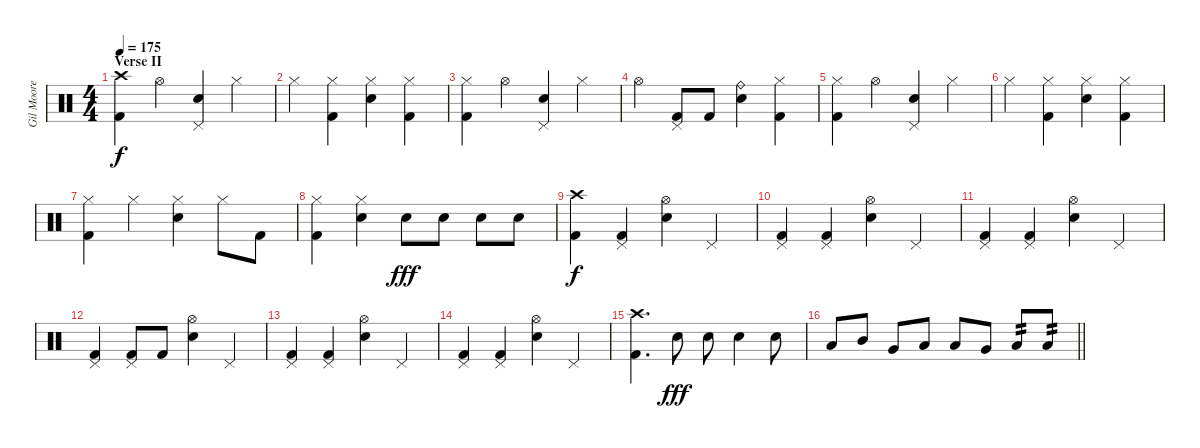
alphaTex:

\track ("Gil Moore" "Gil Moore") {instrument percussion}
\staff {score}
\articulation defaults
\ts (4 4)
\section ("" "Verse II")
\tempo 175
\clef neutral
\ks c
("Crash high (hit)" "Kick (hit) 2").4{dy f} "Hi-Hat (open)".4 ("Pedal Hi-Hat (hit)" "Snare (hit) 2").4 "Hi-Hat (closed)".4 |
"Hi-Hat (closed)".4 ("Hi-Hat (closed)" "Kick (hit) 2").4 ("Hi-Hat (closed)" "Snare (hit) 2").4 ("Hi-Hat (closed)" "Kick (hit) 2").4 |
("Hi-Hat (closed)" "Kick (hit) 2").4 "Hi-Hat (open)".4 ("Pedal Hi-Hat (hit)" "Snare (hit) 2").4 "Hi-Hat (closed)".4 |
"Hi-Hat (open)".4 ("Pedal Hi-Hat (hit)" "Kick (hit) 2").8 "Kick (hit) 2".8 ("Ride (bell)" "Snare (hit) 2").4 ("Hi-Hat (closed)" "Kick (hit) 2").4 |
("Hi-Hat (closed)" "Kick (hit) 2").4 "Hi-Hat (open)".4 ("Pedal Hi-Hat (hit)" "Snare (hit) 2").4 "Hi-Hat (closed)".4 |
"Hi-Hat (closed)".4 ("Hi-Hat (closed)" "Kick (hit) 2").4 ("Hi-Hat (closed)" "Snare (hit) 2").4 ("Hi-Hat (closed)" "Kick (hit) 2").4 |
("Hi-Hat (closed)" "Kick (hit) 2").4 "Hi-Hat (closed)".4 ("Hi-Hat (closed)" "Snare (hit) 2").4 "Hi-Hat (closed)".8 "Kick (hit) 2".8 |
("Hi-Hat (closed)" "Kick (hit) 2").4 ("Hi-Hat (closed)" "Snare (hit) 2").4 "Snare (hit) 2".8{dy fff} "Snare (hit) 2".8 "Snare (hit) 2".8 "Snare (hit) 2".8 |
("Crash high (hit)" "Kick (hit) 2").4{dy f} ("Pedal Hi-Hat (hit)" "Kick (hit) 2").4 ("Hi-Hat (open)" "Snare (hit) 2").4 "Pedal Hi-Hat (hit)".4 |
("Pedal Hi-Hat (hit)" "Kick (hit) 2").4 ("Pedal Hi-Hat (hit)" "Kick (hit) 2").4 ("Hi-Hat (open)" "Snare (hit) 2").4 "Pedal Hi-Hat (hit)".4 |
("Pedal Hi-Hat (hit)" "Kick (hit) 2").4 ("Pedal Hi-Hat (hit)" "Kick (hit) 2").4 ("Hi-Hat (open)" "Snare (hit) 2").4 "Pedal Hi-Hat (hit)".4 |
("Pedal Hi-Hat (hit)" "Kick (hit) 2").4 ("Pedal Hi-Hat (hit)" "Kick (hit) 2").8 "Kick (hit) 2".8 ("Hi-Hat (open)" "Snare (hit) 2").4 "Pedal Hi-Hat (hit)".4 |
("Pedal Hi-Hat (hit)" "Kick (hit) 2").4 ("Pedal Hi-Hat (hit)" "Kick (hit) 2").4 ("Hi-Hat (open)" "Snare (hit) 2").4 "Pedal Hi-Hat (hit)".4 |
("Pedal Hi-Hat (hit)" "Kick (hit) 2").4 ("Pedal Hi-Hat (hit)" "Kick (hit) 2").4 ("Hi-Hat (open)" "Snare (hit) 2").4 "Pedal Hi-Hat (hit)".4 |
("Crash high (hit)" "Kick (hit) 2").4{d} "Snare (hit) 2".8{dy fff} "Snare (hit) 2".8 "Snare (hit) 2".4 "Snare (hit) 2".8 |
\barLineRight lightlight "Low Tom (hit)".8 "Mid Tom (hit)".8 "Very Low Tom (hit)".8 "Low Tom (hit)".8 "Low Floor Tom (hit)".8 "Very Low Tom (hit)".8 "Low Floor Tom (hit)".8{tp 2} "Low Floor Tom (hit)".8{tp 2}
